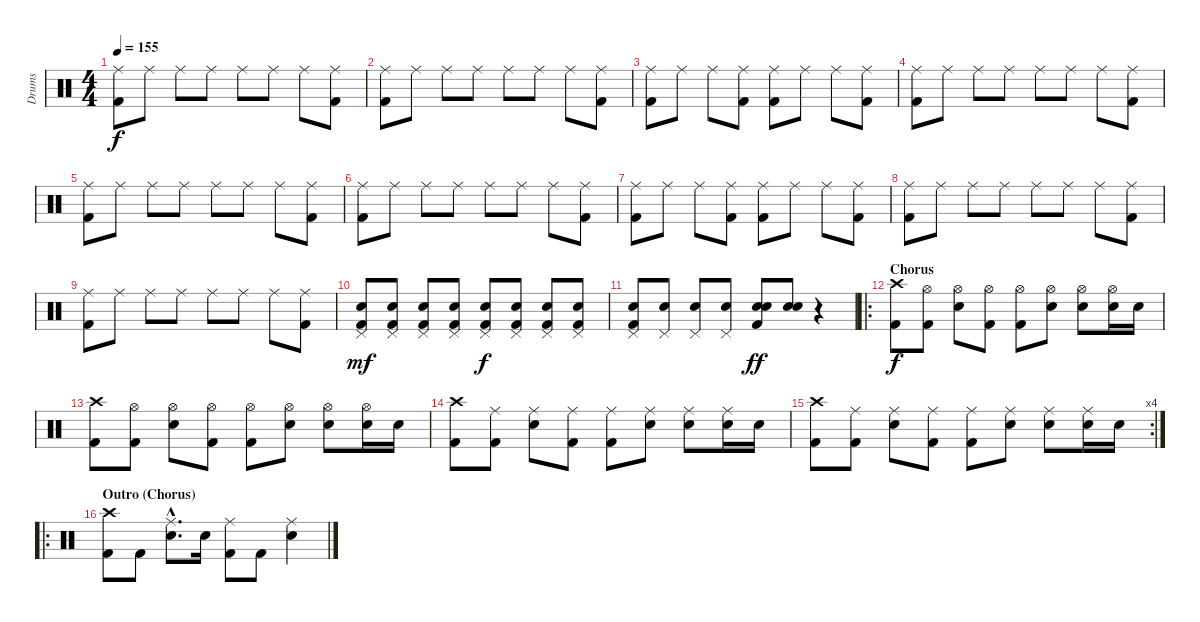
\track ("Drums" "Drums") {instrument percussion}
\staff {score}
\articulation defaults
\ts (4 4)
\tempo 155
\clef neutral
\ks c
("Ride (middle)" "Kick (hit) 2").8{dy f} "Ride (middle)".8 "Ride (middle)".8 "Ride (middle)".8 "Ride (middle)".8 "Ride (middle)".8 "Ride (middle)".8 ("Ride (middle)" "Kick (hit) 2").8 |
("Ride (middle)" "Kick (hit) 2").8 "Ride (middle)".8 "Ride (middle)".8 "Ride (middle)".8 "Ride (middle)".8 "Ride (middle)".8 "Ride (middle)".8 ("Ride (middle)" "Kick (hit) 2").8 |
("Ride (middle)" "Kick (hit) 2").8 "Ride (middle)".8 "Ride (middle)".8 ("Ride (middle)" "Kick (hit) 2").8 ("Ride (middle)" "Kick (hit) 2").8 "Ride (middle)".8 "Ride (middle)".8 ("Ride (middle)" "Kick (hit) 2").8 |
("Ride (middle)" "Kick (hit) 2").8 "Ride (middle)".8 "Ride (middle)".8 "Ride (middle)".8 "Ride (middle)".8 "Ride (middle)".8 "Ride (middle)".8 ("Ride (middle)" "Kick (hit) 2").8 |
("Ride (middle)" "Kick (hit) 2").8 "Ride (middle)".8 "Ride (middle)".8 "Ride (middle)".8 "Ride (middle)".8 "Ride (middle)".8 "Ride (middle)".8 ("Ride (middle)" "Kick (hit) 2").8 |
("Ride (middle)" "Kick (hit) 2").8 "Ride (middle)".8 "Ride (middle)".8 "Ride (middle)".8 "Ride (middle)".8 "Ride (middle)".8 "Ride (middle)".8 ("Ride (middle)" "Kick (hit) 2").8 |
("Ride (middle)" "Kick (hit) 2").8 "Ride (middle)".8 "Ride (middle)".8 ("Ride (middle)" "Kick (hit) 2").8 ("Ride (middle)" "Kick (hit) 2").8 "Ride (middle)".8 "Ride (middle)".8 ("Ride (middle)" "Kick (hit) 2").8 |
("Ride (middle)" "Kick (hit) 2").8 "Ride (middle)".8 "Ride (middle)".8 "Ride (middle)".8 "Ride (middle)".8 "Ride (middle)".8 "Ride (middle)".8 ("Ride (middle)" "Kick (hit) 2").8 |
("Ride (middle)" "Kick (hit) 2").8 "Ride (middle)".8 "Ride (middle)".8 "Ride (middle)".8 "Ride (middle)".8 "Ride (middle)".8 "Ride (middle)".8 ("Ride (middle)" "Kick (hit) 2").8 |
("Pedal Hi-Hat (hit)" "Snare (hit) 2" "Kick (hit) 2").8{dy mf} ("Pedal Hi-Hat (hit)" "Snare (hit) 2" "Kick (hit) 2").8 ("Pedal Hi-Hat (hit)" "Snare (hit) 2" "Kick (hit) 2").8 ("Pedal Hi-Hat (hit)" "Snare (hit) 2" "Kick (hit) 2").8 ("Pedal Hi-Hat (hit)" "Snare (hit) 2" "Kick (hit) 2").8{dy f} ("Pedal Hi-Hat (hit)" "Snare (hit) 2" "Kick (hit) 2").8 ("Pedal Hi-Hat (hit)" "Snare (hit) 2" "Kick (hit) 2").8 ("Pedal Hi-Hat (hit)" "Snare (hit) 2" "Kick (hit) 2").8 |
("Pedal Hi-Hat (hit)" "Snare (hit) 2" "Kick (hit) 2").8 ("Pedal Hi-Hat (hit)" "Snare (hit) 2").8 ("Pedal Hi-Hat (hit)" "Snare (hit) 2").8 ("Pedal Hi-Hat (hit)" "Snare (hit) 2").8 ("Snare (hit) 2" "Snare (hit) 2" "Kick (hit) 2").8{dy ff} ("Snare (hit) 2" "Snare (hit) 2").8 r.4 |
\ro
\section ("" "Chorus")
("Crash high (hit)" "Kick (hit) 2").8{dy f} ("Hi-Hat (open)" "Kick (hit) 2").8 ("Hi-Hat (open)" "Snare (hit) 2").8 ("Hi-Hat (open)" "Kick (hit) 2").8 ("Hi-Hat (open)" "Kick (hit) 2").8 ("Hi-Hat (open)" "Snare (hit) 2").8 ("Hi-Hat (open)" "Snare (hit) 2").8 ("Hi-Hat (open)" "Snare (hit) 2").16 "Snare (hit) 2".16 |
("Crash high (hit)" "Kick (hit) 2").8 ("Hi-Hat (open)" "Kick (hit) 2").8 ("Hi-Hat (open)" "Snare (hit) 2").8 ("Hi-Hat (open)" "Kick (hit) 2").8 ("Hi-Hat (open)" "Kick (hit) 2").8 ("Hi-Hat (open)" "Snare (hit) 2").8 ("Hi-Hat (open)" "Snare (hit) 2").8 ("Hi-Hat (open)" "Snare (hit) 2").16 "Snare (hit) 2".16 |
("Crash high (hit)" "Kick (hit) 2").8 ("Ride (middle)" "Kick (hit) 2").8 ("Ride (middle)" "Snare (hit) 2").8 ("Ride (middle)" "Kick (hit) 2").8 ("Ride (middle)" "Kick (hit) 2").8 ("Ride (middle)" "Snare (hit) 2").8 ("Ride (middle)" "Snare (hit) 2").8 ("Ride (middle)" "Snare (hit) 2").16 "Snare (hit) 2".16 |
\rc 4
("Crash high (hit)" "Kick (hit) 2").8 ("Ride (middle)" "Kick (hit) 2").8 ("Ride (middle)" "Snare (hit) 2").8 ("Ride (middle)" "Kick (hit) 2").8 ("Ride (middle)" "Kick (hit) 2").8 ("Ride (middle)" "Snare (hit) 2").8 ("Ride (middle)" "Snare (hit) 2").8 ("Ride (middle)" "Snare (hit) 2").16 "Snare (hit) 2".16 |
\ro
\section ("" "Outro (Chorus)")
("Crash high (hit)" "Kick (hit) 2").8 "Kick (hit) 2".8 ("Ride (middle)"{hac} "Snare (hit) 2"{hac}).8{d} "Snare (hit) 2".16 ("Ride (middle)" "Kick (hit) 2").8 "Kick (hit) 2".8 ("Ride (middle)" "Snare (hit) 2").4
